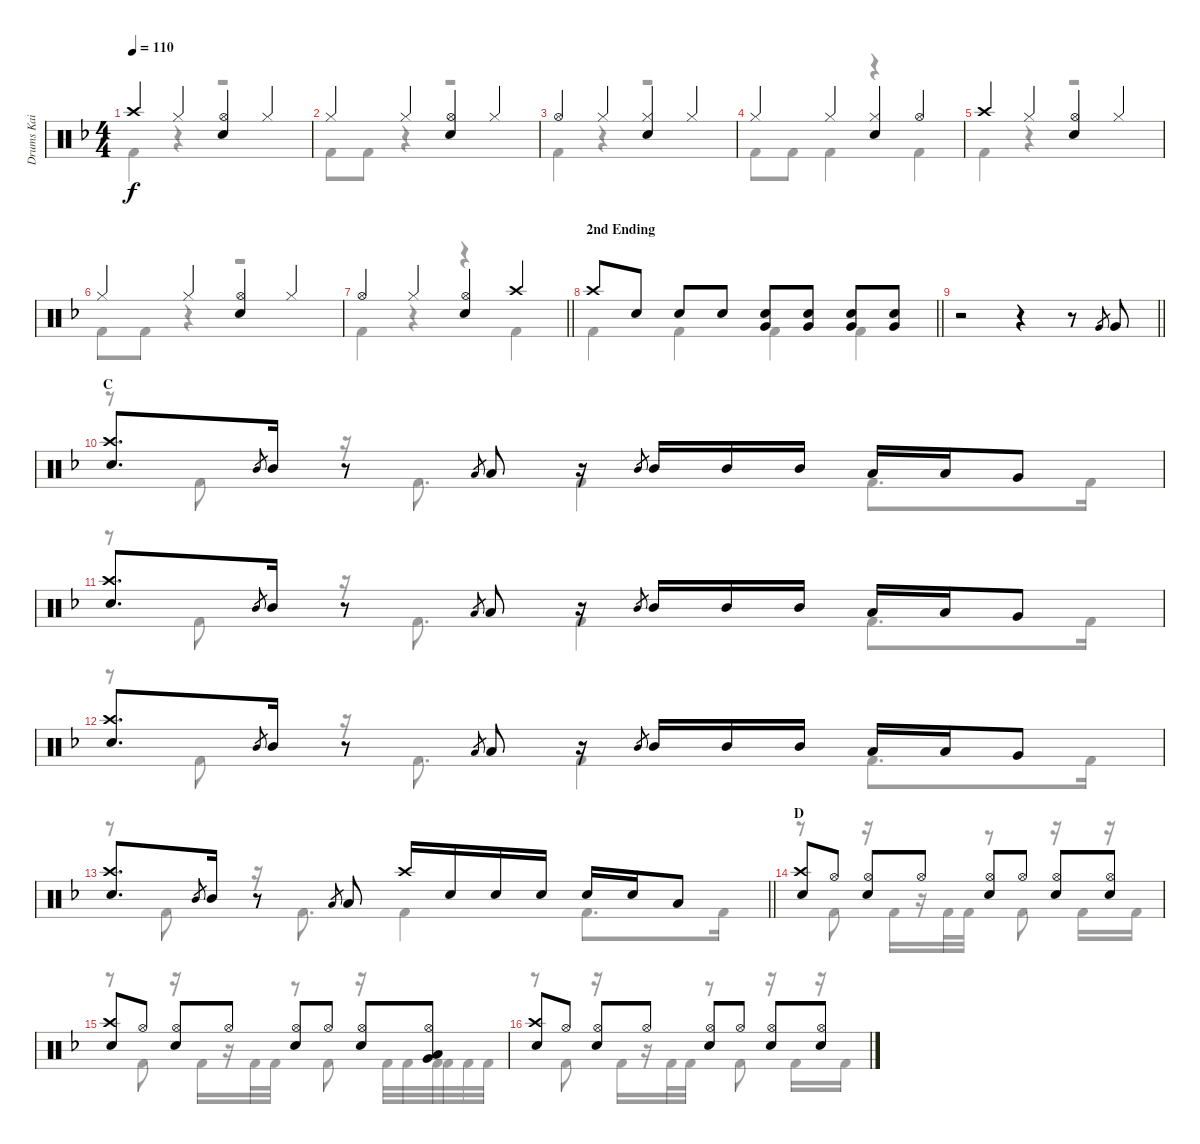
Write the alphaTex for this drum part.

\track ("Drums Kai" "Drums Kai") {instrument percussion}
\staff {score}
\articulation defaults
\voice
\ts (4 4)
\tempo 110
\clef neutral
\ks f "Crash high (hit)".4{dy f} "Hi-Hat (closed)".4
("Hi-Hat (open)" "Electric Snare (hit)").4 "Hi-Hat (closed)".4 |
"Hi-Hat (closed)".4 "Hi-Hat (closed)".4 ("Hi-Hat (open)" "Electric Snare (hit)").4 "Hi-Hat (closed)".4 |
"Hi-Hat (open)".4 "Hi-Hat (closed)".4 ("Hi-Hat (closed)" "Electric Snare (hit)").4 "Hi-Hat (closed)".4 |
"Hi-Hat (closed)".4 "Hi-Hat (closed)".4 ("Hi-Hat (closed)" "Electric Snare (hit)").4 "Hi-Hat (open)".4 |
"Crash high (hit)".4 "Hi-Hat (closed)".4 ("Hi-Hat (open)" "Electric Snare (hit)").4 "Hi-Hat (closed)".4 |
"Hi-Hat (closed)".4 "Hi-Hat (closed)".4 ("Hi-Hat (open)" "Electric Snare (hit)").4 "Hi-Hat (closed)".4 |
\barLineRight lightlight "Hi-Hat (open)".4 "Hi-Hat (closed)".4
("Hi-Hat (open)" "Electric Snare (hit)").4 "Crash high (hit)".4 |
\section ("" "2nd Ending")
\barLineRight lightlight "Crash high (hit)".8 "Electric Snare (hit)".8 "Electric Snare (hit)".8 "Electric Snare (hit)".8
("Electric Snare (hit)" "Very Low Tom (hit)").8 ("Electric Snare (hit)" "Very Low Tom (hit)").8 ("Electric Snare (hit)" "Very Low Tom (hit)").8 ("Electric Snare (hit)" "Very Low Tom (hit)").8 |
\barLineRight lightlight
r.2 r.4 r.8 "Very Low Tom (hit)".8{gr} "Very Low Tom (hit)".8 |
\section ("" "C")
("Crash high (hit)" "Electric Snare (hit)").8{d} "Mid Tom (hit)".8{gr} "Mid Tom (hit)".16 r.8 "Low Tom (hit)".8{gr} "Low Tom (hit)".8 r.16 "Mid Tom (hit)".8{gr} "Mid Tom (hit)".16 "Mid Tom (hit)".16 "Mid Tom (hit)".16 "Low Tom (hit)".16 "Low Tom (hit)".16 "Very Low Tom (hit)".8 |
("Crash high (hit)" "Electric Snare (hit)").8{d} "Mid Tom (hit)".8{gr} "Mid Tom (hit)".16 r.8 "Low Tom (hit)".8{gr} "Low Tom (hit)".8 r.16 "Mid Tom (hit)".8{gr} "Mid Tom (hit)".16 "Mid Tom (hit)".16 "Mid Tom (hit)".16 "Low Tom (hit)".16 "Low Tom (hit)".16 "Very Low Tom (hit)".8 |
("Crash high (hit)" "Electric Snare (hit)").8{d} "Mid Tom (hit)".8{gr} "Mid Tom (hit)".16 r.8 "Low Tom (hit)".8{gr} "Low Tom (hit)".8 r.16 "Mid Tom (hit)".8{gr} "Mid Tom (hit)".16 "Mid Tom (hit)".16 "Mid Tom (hit)".16 "Low Tom (hit)".16 "Low Tom (hit)".16 "Very Low Tom (hit)".8 |
\barLineRight lightlight
("Crash high (hit)" "Electric Snare (hit)").8{d} "Mid Tom (hit)".8{gr} "Mid Tom (hit)".16 r.8 "Low Tom (hit)".8{gr} "Low Tom (hit)".8 "Crash high (hit)".16 "Electric Snare (hit)".16 "Electric Snare (hit)".16 "Electric Snare (hit)".16 "Electric Snare (hit)".16 "Electric Snare (hit)".16 "Low Tom (hit)".8 |
\section ("" "D")
("Crash high (hit)" "Electric Snare (hit)").8 "Hi-Hat (open)".8 ("Hi-Hat (open)" "Electric Snare (hit)").8 "Hi-Hat (open)".8 ("Hi-Hat (open)" "Electric Snare (hit)").8 "Hi-Hat (open)".8 ("Hi-Hat (open)" "Electric Snare (hit)").8 ("Hi-Hat (open)" "Electric Snare (hit)").8 |
("Crash high (hit)" "Electric Snare (hit)").8 "Hi-Hat (open)".8 ("Hi-Hat (open)" "Electric Snare (hit)").8 "Hi-Hat (open)".8 ("Hi-Hat (open)" "Electric Snare (hit)").8 "Hi-Hat (open)".8 ("Hi-Hat (open)" "Electric Snare (hit)").8 ("Hi-Hat (open)" "Low Tom (hit)" "Very Low Tom (hit)").8 |
("Crash high (hit)" "Electric Snare (hit)").8 "Hi-Hat (open)".8 ("Hi-Hat (open)" "Electric Snare (hit)").8 "Hi-Hat (open)".8 ("Hi-Hat (open)" "Electric Snare (hit)").8 "Hi-Hat (open)".8 ("Hi-Hat (open)" "Electric Snare (hit)").8 ("Hi-Hat (open)" "Electric Snare (hit)").8
\voice
\clef neutral
\ottava regular
\simile none
\ks f "Kick (hit) 2".4{dy f}
r.4 r.2 |
"Kick (hit) 2".8 "Kick (hit) 2".8 r.4 r.2 |
"Kick (hit) 2".4 r.4 r.2 |
"Kick (hit) 2".8 "Kick (hit) 2".8 "Kick (hit) 2".4 r.4 "Kick (hit) 2".4 |
"Kick (hit) 2".4 r.4 r.2 |
"Kick (hit) 2".8 "Kick (hit) 2".8 r.4 r.2 |
\barLineRight lightlight "Kick (hit) 2".4
r.4 r.4 "Kick (hit) 2".4 |
\barLineRight lightlight "Kick (hit) 2".4 "Kick (hit) 2".4 "Kick (hit) 2".4 "Kick (hit) 2".4
|
\barLineRight lightlight
|
r.8 "Kick (hit) 2".8 r.16 "Kick (hit) 2".8{d} "Kick (hit) 2".4 "Kick (hit) 2".8{d} "Kick (hit) 2".16 |
r.8 "Kick (hit) 2".8 r.16 "Kick (hit) 2".8{d} "Kick (hit) 2".4 "Kick (hit) 2".8{d} "Kick (hit) 2".16 |
r.8 "Kick (hit) 2".8 r.16 "Kick (hit) 2".8{d} "Kick (hit) 2".4 "Kick (hit) 2".8{d} "Kick (hit) 2".16 |
\barLineRight lightlight
r.8 "Kick (hit) 2".8 r.16 "Kick (hit) 2".8{d} "Kick (hit) 2".4 "Kick (hit) 2".8{d} "Kick (hit) 2".16 |
r.8 "Kick (hit) 2".8 r.16 "Kick (hit) 2".16 r.16 "Kick (hit) 2".32 "Kick (hit) 2".32 r.8 "Kick (hit) 2".8 r.16 "Kick (hit) 2".16 r.16 "Kick (hit) 2".16 |
r.8 "Kick (hit) 2".8 r.16 "Kick (hit) 2".16 r.16 "Kick (hit) 2".32 "Kick (hit) 2".32 r.8 "Kick (hit) 2".8 r.16 "Kick (hit) 2".32 "Kick (hit) 2".32 "Kick (hit) 2".32 "Kick (hit) 2".32 "Kick (hit) 2".32 "Kick (hit) 2".32 |
r.8 "Kick (hit) 2".8 r.16 "Kick (hit) 2".16 r.16 "Kick (hit) 2".32 "Kick (hit) 2".32 r.8 "Kick (hit) 2".8 r.16 "Kick (hit) 2".16 r.16 "Kick (hit) 2".16
